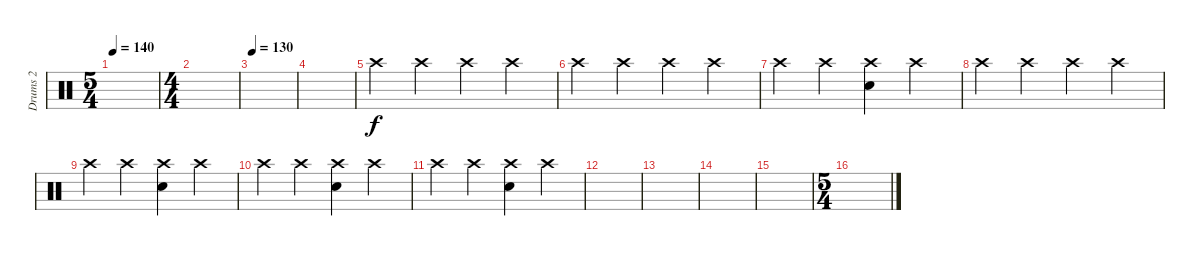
\track ("Drums 2" "Drums 2") {instrument percussion}
\staff {score}
\articulation defaults
\ts (5 4)
\tempo 140
\clef neutral
\ks c
|
\ts (4 4)
|
\tempo 130
|
|
"Crash high (hit)".4 "Crash high (hit)".4 "Crash high (hit)".4 "Crash high (hit)".4 |
"Crash high (hit)".4 "Crash high (hit)".4 "Crash high (hit)".4 "Crash high (hit)".4 |
"Crash high (hit)".4 "Crash high (hit)".4 ("Crash high (hit)" "Electric Snare (hit)").4 "Crash high (hit)".4 |
"Crash high (hit)".4 "Crash high (hit)".4 "Crash high (hit)".4 "Crash high (hit)".4 |
"Crash high (hit)".4 "Crash high (hit)".4 ("Crash high (hit)" "Electric Snare (hit)").4 "Crash high (hit)".4 |
"Crash high (hit)".4 "Crash high (hit)".4 ("Crash high (hit)" "Electric Snare (hit)").4 "Crash high (hit)".4 |
"Crash high (hit)".4 "Crash high (hit)".4 ("Crash high (hit)" "Electric Snare (hit)").4 "Crash high (hit)".4 |
|
|
|
|
\ts (5 4)
